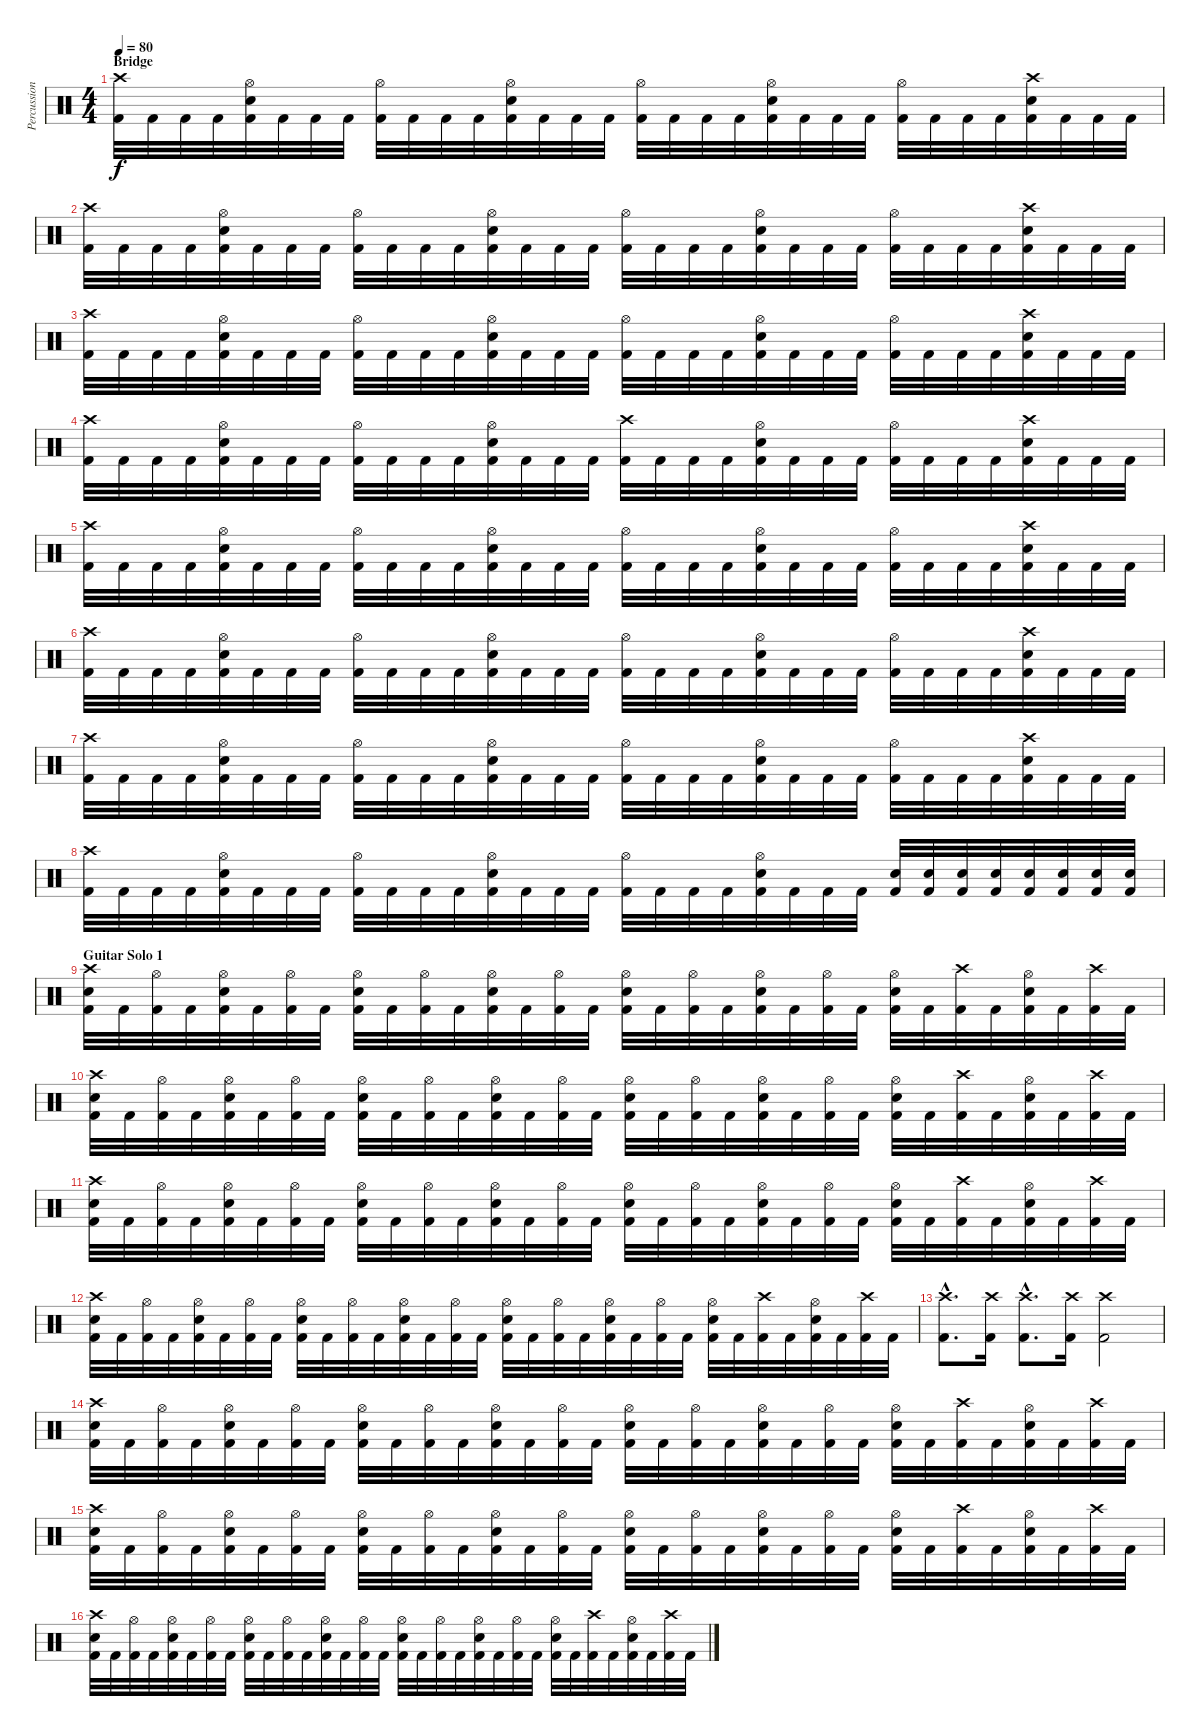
\track ("Percussions" "Percussion") {instrument percussion}
\staff {score}
\articulation defaults
\ts (4 4)
\section ("" "Bridge")
\tempo 80
\clef neutral
\ks c
("Crash high (hit)" "Kick (hit) 2").32{dy f} "Kick (hit) 2".32 "Kick (hit) 2".32 "Kick (hit) 2".32 ("Hi-Hat (open)" "Electric Snare (hit)" "Kick (hit) 2").32 "Kick (hit) 2".32 "Kick (hit) 2".32 "Kick (hit) 2".32 ("Hi-Hat (open)" "Kick (hit) 2").32 "Kick (hit) 2".32 "Kick (hit) 2".32 "Kick (hit) 2".32 ("Hi-Hat (open)" "Electric Snare (hit)" "Kick (hit) 2").32 "Kick (hit) 2".32 "Kick (hit) 2".32 "Kick (hit) 2".32 ("Hi-Hat (open)" "Kick (hit) 2").32 "Kick (hit) 2".32 "Kick (hit) 2".32 "Kick (hit) 2".32 ("Hi-Hat (open)" "Electric Snare (hit)" "Kick (hit) 2").32 "Kick (hit) 2".32 "Kick (hit) 2".32 "Kick (hit) 2".32 ("Hi-Hat (open)" "Kick (hit) 2").32 "Kick (hit) 2".32 "Kick (hit) 2".32 "Kick (hit) 2".32 ("Crash high (hit)" "Electric Snare (hit)" "Kick (hit) 2").32 "Kick (hit) 2".32 "Kick (hit) 2".32 "Kick (hit) 2".32 |
("Crash high (hit)" "Kick (hit) 2").32 "Kick (hit) 2".32 "Kick (hit) 2".32 "Kick (hit) 2".32 ("Hi-Hat (open)" "Electric Snare (hit)" "Kick (hit) 2").32 "Kick (hit) 2".32 "Kick (hit) 2".32 "Kick (hit) 2".32 ("Hi-Hat (open)" "Kick (hit) 2").32 "Kick (hit) 2".32 "Kick (hit) 2".32 "Kick (hit) 2".32 ("Hi-Hat (open)" "Electric Snare (hit)" "Kick (hit) 2").32 "Kick (hit) 2".32 "Kick (hit) 2".32 "Kick (hit) 2".32 ("Hi-Hat (open)" "Kick (hit) 2").32 "Kick (hit) 2".32 "Kick (hit) 2".32 "Kick (hit) 2".32 ("Hi-Hat (open)" "Electric Snare (hit)" "Kick (hit) 2").32 "Kick (hit) 2".32 "Kick (hit) 2".32 "Kick (hit) 2".32 ("Hi-Hat (open)" "Kick (hit) 2").32 "Kick (hit) 2".32 "Kick (hit) 2".32 "Kick (hit) 2".32 ("Crash high (hit)" "Electric Snare (hit)" "Kick (hit) 2").32 "Kick (hit) 2".32 "Kick (hit) 2".32 "Kick (hit) 2".32 |
("Crash high (hit)" "Kick (hit) 2").32 "Kick (hit) 2".32 "Kick (hit) 2".32 "Kick (hit) 2".32 ("Hi-Hat (open)" "Electric Snare (hit)" "Kick (hit) 2").32 "Kick (hit) 2".32 "Kick (hit) 2".32 "Kick (hit) 2".32 ("Hi-Hat (open)" "Kick (hit) 2").32 "Kick (hit) 2".32 "Kick (hit) 2".32 "Kick (hit) 2".32 ("Hi-Hat (open)" "Electric Snare (hit)" "Kick (hit) 2").32 "Kick (hit) 2".32 "Kick (hit) 2".32 "Kick (hit) 2".32 ("Hi-Hat (open)" "Kick (hit) 2").32 "Kick (hit) 2".32 "Kick (hit) 2".32 "Kick (hit) 2".32 ("Hi-Hat (open)" "Electric Snare (hit)" "Kick (hit) 2").32 "Kick (hit) 2".32 "Kick (hit) 2".32 "Kick (hit) 2".32 ("Hi-Hat (open)" "Kick (hit) 2").32 "Kick (hit) 2".32 "Kick (hit) 2".32 "Kick (hit) 2".32 ("Crash high (hit)" "Electric Snare (hit)" "Kick (hit) 2").32 "Kick (hit) 2".32 "Kick (hit) 2".32 "Kick (hit) 2".32 |
("Crash high (hit)" "Kick (hit) 2").32 "Kick (hit) 2".32 "Kick (hit) 2".32 "Kick (hit) 2".32 ("Hi-Hat (open)" "Electric Snare (hit)" "Kick (hit) 2").32 "Kick (hit) 2".32 "Kick (hit) 2".32 "Kick (hit) 2".32 ("Hi-Hat (open)" "Kick (hit) 2").32 "Kick (hit) 2".32 "Kick (hit) 2".32 "Kick (hit) 2".32 ("Hi-Hat (open)" "Electric Snare (hit)" "Kick (hit) 2").32 "Kick (hit) 2".32 "Kick (hit) 2".32 "Kick (hit) 2".32 ("Crash high (hit)" "Kick (hit) 2").32 "Kick (hit) 2".32 "Kick (hit) 2".32 "Kick (hit) 2".32 ("Hi-Hat (open)" "Electric Snare (hit)" "Kick (hit) 2").32 "Kick (hit) 2".32 "Kick (hit) 2".32 "Kick (hit) 2".32 ("Hi-Hat (open)" "Kick (hit) 2").32 "Kick (hit) 2".32 "Kick (hit) 2".32 "Kick (hit) 2".32 ("Crash high (hit)" "Electric Snare (hit)" "Kick (hit) 2").32 "Kick (hit) 2".32 "Kick (hit) 2".32 "Kick (hit) 2".32 |
("Crash high (hit)" "Kick (hit) 2").32 "Kick (hit) 2".32 "Kick (hit) 2".32 "Kick (hit) 2".32 ("Hi-Hat (open)" "Electric Snare (hit)" "Kick (hit) 2").32 "Kick (hit) 2".32 "Kick (hit) 2".32 "Kick (hit) 2".32 ("Hi-Hat (open)" "Kick (hit) 2").32 "Kick (hit) 2".32 "Kick (hit) 2".32 "Kick (hit) 2".32 ("Hi-Hat (open)" "Electric Snare (hit)" "Kick (hit) 2").32 "Kick (hit) 2".32 "Kick (hit) 2".32 "Kick (hit) 2".32 ("Hi-Hat (open)" "Kick (hit) 2").32 "Kick (hit) 2".32 "Kick (hit) 2".32 "Kick (hit) 2".32 ("Hi-Hat (open)" "Electric Snare (hit)" "Kick (hit) 2").32 "Kick (hit) 2".32 "Kick (hit) 2".32 "Kick (hit) 2".32 ("Hi-Hat (open)" "Kick (hit) 2").32 "Kick (hit) 2".32 "Kick (hit) 2".32 "Kick (hit) 2".32 ("Crash high (hit)" "Electric Snare (hit)" "Kick (hit) 2").32 "Kick (hit) 2".32 "Kick (hit) 2".32 "Kick (hit) 2".32 |
("Crash high (hit)" "Kick (hit) 2").32 "Kick (hit) 2".32 "Kick (hit) 2".32 "Kick (hit) 2".32 ("Hi-Hat (open)" "Electric Snare (hit)" "Kick (hit) 2").32 "Kick (hit) 2".32 "Kick (hit) 2".32 "Kick (hit) 2".32 ("Hi-Hat (open)" "Kick (hit) 2").32 "Kick (hit) 2".32 "Kick (hit) 2".32 "Kick (hit) 2".32 ("Hi-Hat (open)" "Electric Snare (hit)" "Kick (hit) 2").32 "Kick (hit) 2".32 "Kick (hit) 2".32 "Kick (hit) 2".32 ("Hi-Hat (open)" "Kick (hit) 2").32 "Kick (hit) 2".32 "Kick (hit) 2".32 "Kick (hit) 2".32 ("Hi-Hat (open)" "Electric Snare (hit)" "Kick (hit) 2").32 "Kick (hit) 2".32 "Kick (hit) 2".32 "Kick (hit) 2".32 ("Hi-Hat (open)" "Kick (hit) 2").32 "Kick (hit) 2".32 "Kick (hit) 2".32 "Kick (hit) 2".32 ("Crash high (hit)" "Electric Snare (hit)" "Kick (hit) 2").32 "Kick (hit) 2".32 "Kick (hit) 2".32 "Kick (hit) 2".32 |
("Crash high (hit)" "Kick (hit) 2").32 "Kick (hit) 2".32 "Kick (hit) 2".32 "Kick (hit) 2".32 ("Hi-Hat (open)" "Electric Snare (hit)" "Kick (hit) 2").32 "Kick (hit) 2".32 "Kick (hit) 2".32 "Kick (hit) 2".32 ("Hi-Hat (open)" "Kick (hit) 2").32 "Kick (hit) 2".32 "Kick (hit) 2".32 "Kick (hit) 2".32 ("Hi-Hat (open)" "Electric Snare (hit)" "Kick (hit) 2").32 "Kick (hit) 2".32 "Kick (hit) 2".32 "Kick (hit) 2".32 ("Hi-Hat (open)" "Kick (hit) 2").32 "Kick (hit) 2".32 "Kick (hit) 2".32 "Kick (hit) 2".32 ("Hi-Hat (open)" "Electric Snare (hit)" "Kick (hit) 2").32 "Kick (hit) 2".32 "Kick (hit) 2".32 "Kick (hit) 2".32 ("Hi-Hat (open)" "Kick (hit) 2").32 "Kick (hit) 2".32 "Kick (hit) 2".32 "Kick (hit) 2".32 ("Crash high (hit)" "Electric Snare (hit)" "Kick (hit) 2").32 "Kick (hit) 2".32 "Kick (hit) 2".32 "Kick (hit) 2".32 |
("Crash high (hit)" "Kick (hit) 2").32 "Kick (hit) 2".32 "Kick (hit) 2".32 "Kick (hit) 2".32 ("Hi-Hat (open)" "Electric Snare (hit)" "Kick (hit) 2").32 "Kick (hit) 2".32 "Kick (hit) 2".32 "Kick (hit) 2".32 ("Hi-Hat (open)" "Kick (hit) 2").32 "Kick (hit) 2".32 "Kick (hit) 2".32 "Kick (hit) 2".32 ("Hi-Hat (open)" "Electric Snare (hit)" "Kick (hit) 2").32 "Kick (hit) 2".32 "Kick (hit) 2".32 "Kick (hit) 2".32 ("Hi-Hat (open)" "Kick (hit) 2").32 "Kick (hit) 2".32 "Kick (hit) 2".32 "Kick (hit) 2".32 ("Hi-Hat (open)" "Electric Snare (hit)" "Kick (hit) 2").32 "Kick (hit) 2".32 "Kick (hit) 2".32 "Kick (hit) 2".32 ("Electric Snare (hit)" "Kick (hit) 2").32 ("Electric Snare (hit)" "Kick (hit) 2").32 ("Electric Snare (hit)" "Kick (hit) 2").32 ("Electric Snare (hit)" "Kick (hit) 2").32 ("Electric Snare (hit)" "Kick (hit) 2").32 ("Electric Snare (hit)" "Kick (hit) 2").32 ("Electric Snare (hit)" "Kick (hit) 2").32 ("Electric Snare (hit)" "Kick (hit) 2").32 |
\section ("" "Guitar Solo 1")
("Crash high (hit)" "Electric Snare (hit)" "Kick (hit) 2").32 "Kick (hit) 2".32 ("Hi-Hat (open)" "Kick (hit) 2").32 "Kick (hit) 2".32 ("Hi-Hat (open)" "Electric Snare (hit)" "Kick (hit) 2").32 "Kick (hit) 2".32 ("Hi-Hat (open)" "Kick (hit) 2").32 "Kick (hit) 2".32 ("Hi-Hat (open)" "Electric Snare (hit)" "Kick (hit) 2").32 "Kick (hit) 2".32 ("Hi-Hat (open)" "Kick (hit) 2").32 "Kick (hit) 2".32 ("Hi-Hat (open)" "Electric Snare (hit)" "Kick (hit) 2").32 "Kick (hit) 2".32 ("Hi-Hat (open)" "Kick (hit) 2").32 "Kick (hit) 2".32 ("Hi-Hat (open)" "Electric Snare (hit)" "Kick (hit) 2").32 "Kick (hit) 2".32 ("Hi-Hat (open)" "Kick (hit) 2").32 "Kick (hit) 2".32 ("Hi-Hat (open)" "Electric Snare (hit)" "Kick (hit) 2").32 "Kick (hit) 2".32 ("Hi-Hat (open)" "Kick (hit) 2").32 "Kick (hit) 2".32 ("Hi-Hat (open)" "Electric Snare (hit)" "Kick (hit) 2").32 "Kick (hit) 2".32 ("Crash high (hit)" "Kick (hit) 2").32 "Kick (hit) 2".32 ("Hi-Hat (open)" "Electric Snare (hit)" "Kick (hit) 2").32 "Kick (hit) 2".32 ("Crash high (hit)" "Kick (hit) 2").32 "Kick (hit) 2".32 |
("Crash high (hit)" "Electric Snare (hit)" "Kick (hit) 2").32 "Kick (hit) 2".32 ("Hi-Hat (open)" "Kick (hit) 2").32 "Kick (hit) 2".32 ("Hi-Hat (open)" "Electric Snare (hit)" "Kick (hit) 2").32 "Kick (hit) 2".32 ("Hi-Hat (open)" "Kick (hit) 2").32 "Kick (hit) 2".32 ("Hi-Hat (open)" "Electric Snare (hit)" "Kick (hit) 2").32 "Kick (hit) 2".32 ("Hi-Hat (open)" "Kick (hit) 2").32 "Kick (hit) 2".32 ("Hi-Hat (open)" "Electric Snare (hit)" "Kick (hit) 2").32 "Kick (hit) 2".32 ("Hi-Hat (open)" "Kick (hit) 2").32 "Kick (hit) 2".32 ("Hi-Hat (open)" "Electric Snare (hit)" "Kick (hit) 2").32 "Kick (hit) 2".32 ("Hi-Hat (open)" "Kick (hit) 2").32 "Kick (hit) 2".32 ("Hi-Hat (open)" "Electric Snare (hit)" "Kick (hit) 2").32 "Kick (hit) 2".32 ("Hi-Hat (open)" "Kick (hit) 2").32 "Kick (hit) 2".32 ("Hi-Hat (open)" "Electric Snare (hit)" "Kick (hit) 2").32 "Kick (hit) 2".32 ("Crash high (hit)" "Kick (hit) 2").32 "Kick (hit) 2".32 ("Hi-Hat (open)" "Electric Snare (hit)" "Kick (hit) 2").32 "Kick (hit) 2".32 ("Crash high (hit)" "Kick (hit) 2").32 "Kick (hit) 2".32 |
("Crash high (hit)" "Electric Snare (hit)" "Kick (hit) 2").32 "Kick (hit) 2".32 ("Hi-Hat (open)" "Kick (hit) 2").32 "Kick (hit) 2".32 ("Hi-Hat (open)" "Electric Snare (hit)" "Kick (hit) 2").32 "Kick (hit) 2".32 ("Hi-Hat (open)" "Kick (hit) 2").32 "Kick (hit) 2".32 ("Hi-Hat (open)" "Electric Snare (hit)" "Kick (hit) 2").32 "Kick (hit) 2".32 ("Hi-Hat (open)" "Kick (hit) 2").32 "Kick (hit) 2".32 ("Hi-Hat (open)" "Electric Snare (hit)" "Kick (hit) 2").32 "Kick (hit) 2".32 ("Hi-Hat (open)" "Kick (hit) 2").32 "Kick (hit) 2".32 ("Hi-Hat (open)" "Electric Snare (hit)" "Kick (hit) 2").32 "Kick (hit) 2".32 ("Hi-Hat (open)" "Kick (hit) 2").32 "Kick (hit) 2".32 ("Hi-Hat (open)" "Electric Snare (hit)" "Kick (hit) 2").32 "Kick (hit) 2".32 ("Hi-Hat (open)" "Kick (hit) 2").32 "Kick (hit) 2".32 ("Hi-Hat (open)" "Electric Snare (hit)" "Kick (hit) 2").32 "Kick (hit) 2".32 ("Crash high (hit)" "Kick (hit) 2").32 "Kick (hit) 2".32 ("Hi-Hat (open)" "Electric Snare (hit)" "Kick (hit) 2").32 "Kick (hit) 2".32 ("Crash high (hit)" "Kick (hit) 2").32 "Kick (hit) 2".32 |
("Crash high (hit)" "Electric Snare (hit)" "Kick (hit) 2").32 "Kick (hit) 2".32 ("Hi-Hat (open)" "Kick (hit) 2").32 "Kick (hit) 2".32 ("Hi-Hat (open)" "Electric Snare (hit)" "Kick (hit) 2").32 "Kick (hit) 2".32 ("Hi-Hat (open)" "Kick (hit) 2").32 "Kick (hit) 2".32 ("Hi-Hat (open)" "Electric Snare (hit)" "Kick (hit) 2").32 "Kick (hit) 2".32 ("Hi-Hat (open)" "Kick (hit) 2").32 "Kick (hit) 2".32 ("Hi-Hat (open)" "Electric Snare (hit)" "Kick (hit) 2").32 "Kick (hit) 2".32 ("Hi-Hat (open)" "Kick (hit) 2").32 "Kick (hit) 2".32 ("Hi-Hat (open)" "Electric Snare (hit)" "Kick (hit) 2").32 "Kick (hit) 2".32 ("Hi-Hat (open)" "Kick (hit) 2").32 "Kick (hit) 2".32 ("Hi-Hat (open)" "Electric Snare (hit)" "Kick (hit) 2").32 "Kick (hit) 2".32 ("Hi-Hat (open)" "Kick (hit) 2").32 "Kick (hit) 2".32 ("Hi-Hat (open)" "Electric Snare (hit)" "Kick (hit) 2").32 "Kick (hit) 2".32 ("Crash high (hit)" "Kick (hit) 2").32 "Kick (hit) 2".32 ("Hi-Hat (open)" "Electric Snare (hit)" "Kick (hit) 2").32 "Kick (hit) 2".32 ("Crash high (hit)" "Kick (hit) 2").32 "Kick (hit) 2".32 |
("Crash high (hit)"{hac} "Kick (hit) 2"{hac}).8{d} ("Crash high (hit)" "Kick (hit) 2").16 ("Crash high (hit)"{hac} "Kick (hit) 2"{hac}).8{d} ("Crash high (hit)" "Kick (hit) 2").16 ("Crash high (hit)" "Kick (hit) 2").2 |
("Crash high (hit)" "Electric Snare (hit)" "Kick (hit) 2").32 "Kick (hit) 2".32 ("Hi-Hat (open)" "Kick (hit) 2").32 "Kick (hit) 2".32 ("Hi-Hat (open)" "Electric Snare (hit)" "Kick (hit) 2").32 "Kick (hit) 2".32 ("Hi-Hat (open)" "Kick (hit) 2").32 "Kick (hit) 2".32 ("Hi-Hat (open)" "Electric Snare (hit)" "Kick (hit) 2").32 "Kick (hit) 2".32 ("Hi-Hat (open)" "Kick (hit) 2").32 "Kick (hit) 2".32 ("Hi-Hat (open)" "Electric Snare (hit)" "Kick (hit) 2").32 "Kick (hit) 2".32 ("Hi-Hat (open)" "Kick (hit) 2").32 "Kick (hit) 2".32 ("Hi-Hat (open)" "Electric Snare (hit)" "Kick (hit) 2").32 "Kick (hit) 2".32 ("Hi-Hat (open)" "Kick (hit) 2").32 "Kick (hit) 2".32 ("Hi-Hat (open)" "Electric Snare (hit)" "Kick (hit) 2").32 "Kick (hit) 2".32 ("Hi-Hat (open)" "Kick (hit) 2").32 "Kick (hit) 2".32 ("Hi-Hat (open)" "Electric Snare (hit)" "Kick (hit) 2").32 "Kick (hit) 2".32 ("Crash high (hit)" "Kick (hit) 2").32 "Kick (hit) 2".32 ("Hi-Hat (open)" "Electric Snare (hit)" "Kick (hit) 2").32 "Kick (hit) 2".32 ("Crash high (hit)" "Kick (hit) 2").32 "Kick (hit) 2".32 |
("Crash high (hit)" "Electric Snare (hit)" "Kick (hit) 2").32 "Kick (hit) 2".32 ("Hi-Hat (open)" "Kick (hit) 2").32 "Kick (hit) 2".32 ("Hi-Hat (open)" "Electric Snare (hit)" "Kick (hit) 2").32 "Kick (hit) 2".32 ("Hi-Hat (open)" "Kick (hit) 2").32 "Kick (hit) 2".32 ("Hi-Hat (open)" "Electric Snare (hit)" "Kick (hit) 2").32 "Kick (hit) 2".32 ("Hi-Hat (open)" "Kick (hit) 2").32 "Kick (hit) 2".32 ("Hi-Hat (open)" "Electric Snare (hit)" "Kick (hit) 2").32 "Kick (hit) 2".32 ("Hi-Hat (open)" "Kick (hit) 2").32 "Kick (hit) 2".32 ("Hi-Hat (open)" "Electric Snare (hit)" "Kick (hit) 2").32 "Kick (hit) 2".32 ("Hi-Hat (open)" "Kick (hit) 2").32 "Kick (hit) 2".32 ("Hi-Hat (open)" "Electric Snare (hit)" "Kick (hit) 2").32 "Kick (hit) 2".32 ("Hi-Hat (open)" "Kick (hit) 2").32 "Kick (hit) 2".32 ("Hi-Hat (open)" "Electric Snare (hit)" "Kick (hit) 2").32 "Kick (hit) 2".32 ("Crash high (hit)" "Kick (hit) 2").32 "Kick (hit) 2".32 ("Hi-Hat (open)" "Electric Snare (hit)" "Kick (hit) 2").32 "Kick (hit) 2".32 ("Crash high (hit)" "Kick (hit) 2").32 "Kick (hit) 2".32 |
("Crash high (hit)" "Electric Snare (hit)" "Kick (hit) 2").32 "Kick (hit) 2".32 ("Hi-Hat (open)" "Kick (hit) 2").32 "Kick (hit) 2".32 ("Hi-Hat (open)" "Electric Snare (hit)" "Kick (hit) 2").32 "Kick (hit) 2".32 ("Hi-Hat (open)" "Kick (hit) 2").32 "Kick (hit) 2".32 ("Hi-Hat (open)" "Electric Snare (hit)" "Kick (hit) 2").32 "Kick (hit) 2".32 ("Hi-Hat (open)" "Kick (hit) 2").32 "Kick (hit) 2".32 ("Hi-Hat (open)" "Electric Snare (hit)" "Kick (hit) 2").32 "Kick (hit) 2".32 ("Hi-Hat (open)" "Kick (hit) 2").32 "Kick (hit) 2".32 ("Hi-Hat (open)" "Electric Snare (hit)" "Kick (hit) 2").32 "Kick (hit) 2".32 ("Hi-Hat (open)" "Kick (hit) 2").32 "Kick (hit) 2".32 ("Hi-Hat (open)" "Electric Snare (hit)" "Kick (hit) 2").32 "Kick (hit) 2".32 ("Hi-Hat (open)" "Kick (hit) 2").32 "Kick (hit) 2".32 ("Hi-Hat (open)" "Electric Snare (hit)" "Kick (hit) 2").32 "Kick (hit) 2".32 ("Crash high (hit)" "Kick (hit) 2").32 "Kick (hit) 2".32 ("Hi-Hat (open)" "Electric Snare (hit)" "Kick (hit) 2").32 "Kick (hit) 2".32 ("Crash high (hit)" "Kick (hit) 2").32 "Kick (hit) 2".32
